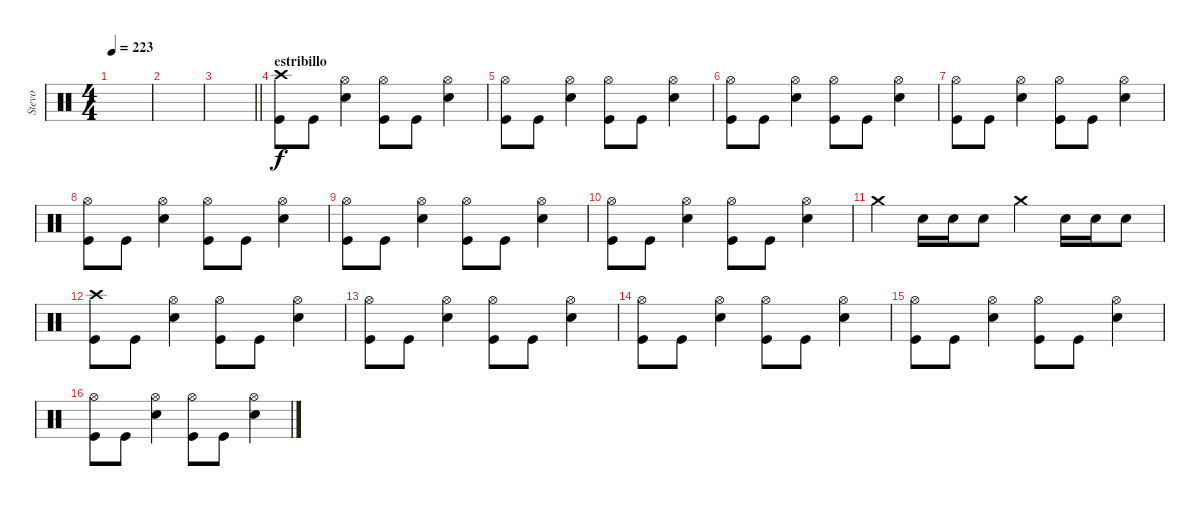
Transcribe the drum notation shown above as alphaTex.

\track ("Stevo" "Stevo") {instrument percussion}
\staff {score}
\articulation defaults
\ts (4 4)
\tempo 223
\clef neutral
\ks c
|
|
\barLineRight lightlight
|
\section ("" "estribillo")
("Kick (hit)" "Crash high (hit)").8 "Kick (hit)".8 ("Electric Snare (hit)" "Hi-Hat (open)").4 ("Kick (hit)" "Hi-Hat (open)").8 "Kick (hit)".8 ("Electric Snare (hit)" "Hi-Hat (open)").4 |
("Kick (hit)" "Hi-Hat (open)").8 "Kick (hit)".8 ("Electric Snare (hit)" "Hi-Hat (open)").4 ("Kick (hit)" "Hi-Hat (open)").8 "Kick (hit)".8 ("Electric Snare (hit)" "Hi-Hat (open)").4 |
("Kick (hit)" "Hi-Hat (open)").8 "Kick (hit)".8 ("Electric Snare (hit)" "Hi-Hat (open)").4 ("Kick (hit)" "Hi-Hat (open)").8 "Kick (hit)".8 ("Electric Snare (hit)" "Hi-Hat (open)").4 |
("Kick (hit)" "Hi-Hat (open)").8 "Kick (hit)".8 ("Electric Snare (hit)" "Hi-Hat (open)").4 ("Kick (hit)" "Hi-Hat (open)").8 "Kick (hit)".8 ("Electric Snare (hit)" "Hi-Hat (open)").4 |
("Kick (hit)" "Hi-Hat (open)").8 "Kick (hit)".8 ("Electric Snare (hit)" "Hi-Hat (open)").4 ("Kick (hit)" "Hi-Hat (open)").8 "Kick (hit)".8 ("Electric Snare (hit)" "Hi-Hat (open)").4 |
("Kick (hit)" "Hi-Hat (open)").8 "Kick (hit)".8 ("Electric Snare (hit)" "Hi-Hat (open)").4 ("Kick (hit)" "Hi-Hat (open)").8 "Kick (hit)".8 ("Electric Snare (hit)" "Hi-Hat (open)").4 |
("Kick (hit)" "Hi-Hat (open)").8 "Kick (hit)".8 ("Electric Snare (hit)" "Hi-Hat (open)").4 ("Kick (hit)" "Hi-Hat (open)").8 "Kick (hit)".8 ("Electric Snare (hit)" "Hi-Hat (open)").4 |
"Crash medium (hit)".4 "Electric Snare (hit)".16 "Electric Snare (hit)".16 "Electric Snare (hit)".8 "Crash medium (hit)".4 "Electric Snare (hit)".16 "Electric Snare (hit)".16 "Electric Snare (hit)".8 |
("Kick (hit)" "Crash high (hit)").8 "Kick (hit)".8 ("Electric Snare (hit)" "Hi-Hat (open)").4 ("Kick (hit)" "Hi-Hat (open)").8 "Kick (hit)".8 ("Electric Snare (hit)" "Hi-Hat (open)").4 |
("Kick (hit)" "Hi-Hat (open)").8 "Kick (hit)".8 ("Electric Snare (hit)" "Hi-Hat (open)").4 ("Kick (hit)" "Hi-Hat (open)").8 "Kick (hit)".8 ("Electric Snare (hit)" "Hi-Hat (open)").4 |
("Kick (hit)" "Hi-Hat (open)").8 "Kick (hit)".8 ("Electric Snare (hit)" "Hi-Hat (open)").4 ("Kick (hit)" "Hi-Hat (open)").8 "Kick (hit)".8 ("Electric Snare (hit)" "Hi-Hat (open)").4 |
("Kick (hit)" "Hi-Hat (open)").8 "Kick (hit)".8 ("Electric Snare (hit)" "Hi-Hat (open)").4 ("Kick (hit)" "Hi-Hat (open)").8 "Kick (hit)".8 ("Electric Snare (hit)" "Hi-Hat (open)").4 |
("Kick (hit)" "Hi-Hat (open)").8 "Kick (hit)".8 ("Electric Snare (hit)" "Hi-Hat (open)").4 ("Kick (hit)" "Hi-Hat (open)").8 "Kick (hit)".8 ("Electric Snare (hit)" "Hi-Hat (open)").4
